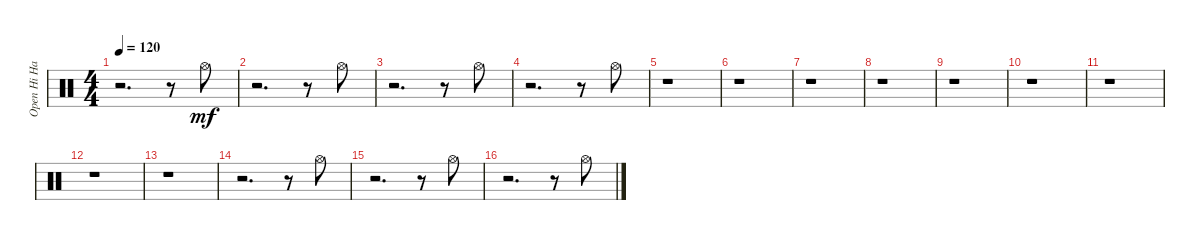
\track ("Open Hi Hat" "Open Hi Ha") {instrument percussion}
\staff {score}
\articulation defaults
\ts (4 4)
\tempo 120
\clef neutral
\ks c
r.2{d dy mf} r.8 "Hi-Hat (open)".8 |
r.2{d} r.8 "Hi-Hat (open)".8 |
r.2{d} r.8 "Hi-Hat (open)".8 |
r.2{d} r.8 "Hi-Hat (open)".8 |
r.1 |
r.1 |
r.1 |
r.1 |
r.1 |
r.1 |
r.1 |
r.1 |
r.1 |
r.2{d} r.8 "Hi-Hat (open)".8 |
r.2{d} r.8 "Hi-Hat (open)".8 |
r.2{d} r.8 "Hi-Hat (open)".8
